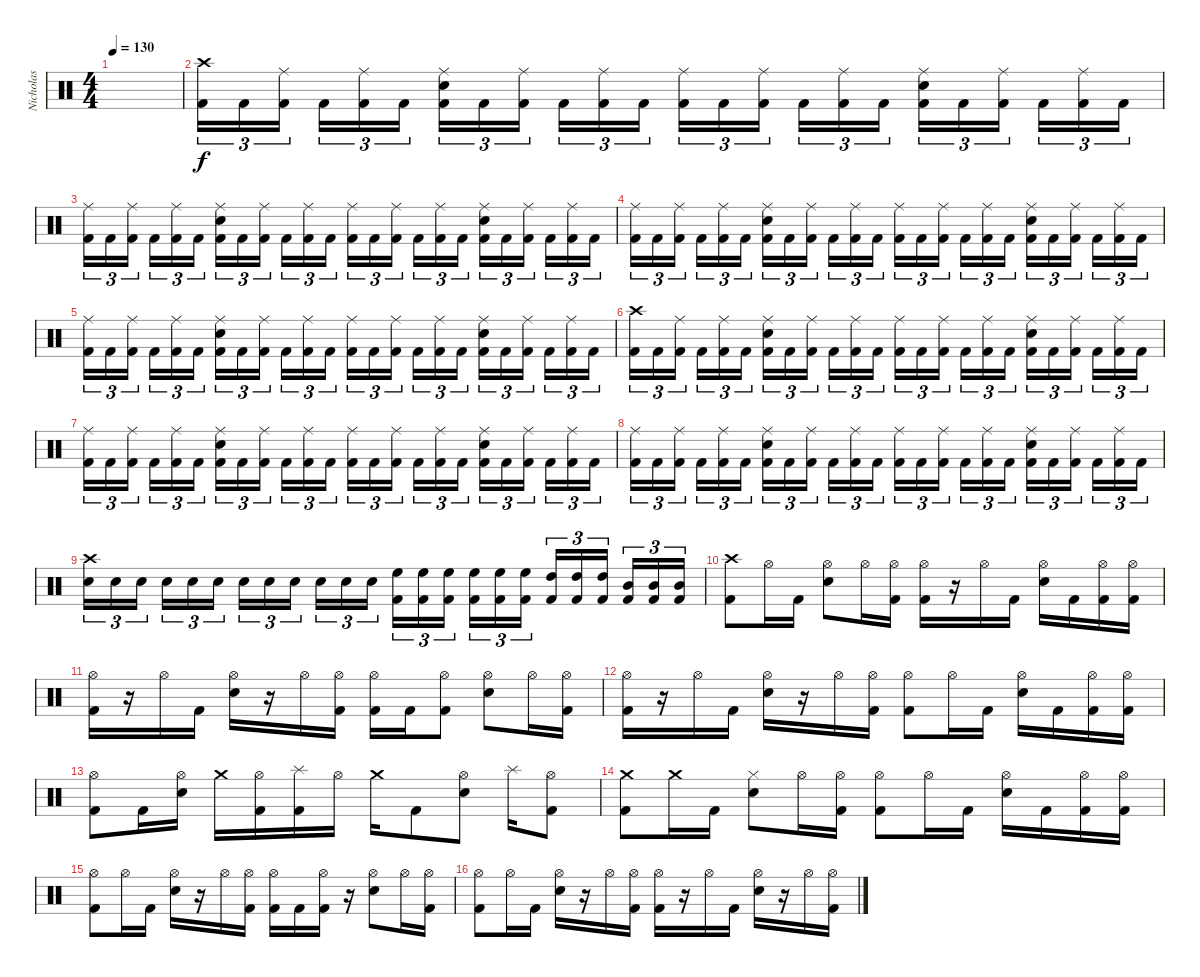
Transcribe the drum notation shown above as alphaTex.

\track ("Nicholas" "Nicholas") {instrument percussion}
\staff {score}
\articulation defaults
\ts (4 4)
\tempo 130
\clef neutral
\ks c
|
("Crash high (hit)" "Kick (hit) 2").16{tu (3 2)} "Kick (hit) 2".16{tu (3 2)} ("Ride (middle)" "Kick (hit) 2").16{tu (3 2) beam splitsecondary} "Kick (hit) 2".16{tu (3 2)} ("Ride (middle)" "Kick (hit) 2").16{tu (3 2)} "Kick (hit) 2".16{tu (3 2)} ("Ride (middle)" "Snare (hit) 2" "Kick (hit) 2").16{tu (3 2)} "Kick (hit) 2".16{tu (3 2)} ("Ride (middle)" "Kick (hit) 2").16{tu (3 2) beam splitsecondary} "Kick (hit) 2".16{tu (3 2)} ("Ride (middle)" "Kick (hit) 2").16{tu (3 2)} "Kick (hit) 2".16{tu (3 2)} ("Ride (middle)" "Kick (hit) 2").16{tu (3 2)} "Kick (hit) 2".16{tu (3 2)} ("Ride (middle)" "Kick (hit) 2").16{tu (3 2) beam splitsecondary} "Kick (hit) 2".16{tu (3 2)} ("Ride (middle)" "Kick (hit) 2").16{tu (3 2)} "Kick (hit) 2".16{tu (3 2)} ("Ride (middle)" "Snare (hit) 2" "Kick (hit) 2").16{tu (3 2)} "Kick (hit) 2".16{tu (3 2)} ("Ride (middle)" "Kick (hit) 2").16{tu (3 2) beam splitsecondary} "Kick (hit) 2".16{tu (3 2)} ("Ride (middle)" "Kick (hit) 2").16{tu (3 2)} "Kick (hit) 2".16{tu (3 2)} |
("Ride (middle)" "Kick (hit) 2").16{tu (3 2)} "Kick (hit) 2".16{tu (3 2)} ("Ride (middle)" "Kick (hit) 2").16{tu (3 2) beam splitsecondary} "Kick (hit) 2".16{tu (3 2)} ("Ride (middle)" "Kick (hit) 2").16{tu (3 2)} "Kick (hit) 2".16{tu (3 2)} ("Ride (middle)" "Snare (hit) 2" "Kick (hit) 2").16{tu (3 2)} "Kick (hit) 2".16{tu (3 2)} ("Ride (middle)" "Kick (hit) 2").16{tu (3 2) beam splitsecondary} "Kick (hit) 2".16{tu (3 2)} ("Ride (middle)" "Kick (hit) 2").16{tu (3 2)} "Kick (hit) 2".16{tu (3 2)} ("Ride (middle)" "Kick (hit) 2").16{tu (3 2)} "Kick (hit) 2".16{tu (3 2)} ("Ride (middle)" "Kick (hit) 2").16{tu (3 2) beam splitsecondary} "Kick (hit) 2".16{tu (3 2)} ("Ride (middle)" "Kick (hit) 2").16{tu (3 2)} "Kick (hit) 2".16{tu (3 2)} ("Ride (middle)" "Snare (hit) 2" "Kick (hit) 2").16{tu (3 2)} "Kick (hit) 2".16{tu (3 2)} ("Ride (middle)" "Kick (hit) 2").16{tu (3 2) beam splitsecondary} "Kick (hit) 2".16{tu (3 2)} ("Ride (middle)" "Kick (hit) 2").16{tu (3 2)} "Kick (hit) 2".16{tu (3 2)} |
("Ride (middle)" "Kick (hit) 2").16{tu (3 2)} "Kick (hit) 2".16{tu (3 2)} ("Ride (middle)" "Kick (hit) 2").16{tu (3 2) beam splitsecondary} "Kick (hit) 2".16{tu (3 2)} ("Ride (middle)" "Kick (hit) 2").16{tu (3 2)} "Kick (hit) 2".16{tu (3 2)} ("Ride (middle)" "Snare (hit) 2" "Kick (hit) 2").16{tu (3 2)} "Kick (hit) 2".16{tu (3 2)} ("Ride (middle)" "Kick (hit) 2").16{tu (3 2) beam splitsecondary} "Kick (hit) 2".16{tu (3 2)} ("Ride (middle)" "Kick (hit) 2").16{tu (3 2)} "Kick (hit) 2".16{tu (3 2)} ("Ride (middle)" "Kick (hit) 2").16{tu (3 2)} "Kick (hit) 2".16{tu (3 2)} ("Ride (middle)" "Kick (hit) 2").16{tu (3 2) beam splitsecondary} "Kick (hit) 2".16{tu (3 2)} ("Ride (middle)" "Kick (hit) 2").16{tu (3 2)} "Kick (hit) 2".16{tu (3 2)} ("Ride (middle)" "Snare (hit) 2" "Kick (hit) 2").16{tu (3 2)} "Kick (hit) 2".16{tu (3 2)} ("Ride (middle)" "Kick (hit) 2").16{tu (3 2) beam splitsecondary} "Kick (hit) 2".16{tu (3 2)} ("Ride (middle)" "Kick (hit) 2").16{tu (3 2)} "Kick (hit) 2".16{tu (3 2)} |
("Ride (middle)" "Kick (hit) 2").16{tu (3 2)} "Kick (hit) 2".16{tu (3 2)} ("Ride (middle)" "Kick (hit) 2").16{tu (3 2) beam splitsecondary} "Kick (hit) 2".16{tu (3 2)} ("Ride (middle)" "Kick (hit) 2").16{tu (3 2)} "Kick (hit) 2".16{tu (3 2)} ("Ride (middle)" "Snare (hit) 2" "Kick (hit) 2").16{tu (3 2)} "Kick (hit) 2".16{tu (3 2)} ("Ride (middle)" "Kick (hit) 2").16{tu (3 2) beam splitsecondary} "Kick (hit) 2".16{tu (3 2)} ("Ride (middle)" "Kick (hit) 2").16{tu (3 2)} "Kick (hit) 2".16{tu (3 2)} ("Ride (middle)" "Kick (hit) 2").16{tu (3 2)} "Kick (hit) 2".16{tu (3 2)} ("Ride (middle)" "Kick (hit) 2").16{tu (3 2) beam splitsecondary} "Kick (hit) 2".16{tu (3 2)} ("Ride (middle)" "Kick (hit) 2").16{tu (3 2)} "Kick (hit) 2".16{tu (3 2)} ("Ride (middle)" "Snare (hit) 2" "Kick (hit) 2").16{tu (3 2)} "Kick (hit) 2".16{tu (3 2)} ("Ride (middle)" "Kick (hit) 2").16{tu (3 2) beam splitsecondary} "Kick (hit) 2".16{tu (3 2)} ("Ride (middle)" "Kick (hit) 2").16{tu (3 2)} "Kick (hit) 2".16{tu (3 2)} |
("Crash high (hit)" "Kick (hit) 2").16{tu (3 2)} "Kick (hit) 2".16{tu (3 2)} ("Ride (middle)" "Kick (hit) 2").16{tu (3 2) beam splitsecondary} "Kick (hit) 2".16{tu (3 2)} ("Ride (middle)" "Kick (hit) 2").16{tu (3 2)} "Kick (hit) 2".16{tu (3 2)} ("Ride (middle)" "Snare (hit) 2" "Kick (hit) 2").16{tu (3 2)} "Kick (hit) 2".16{tu (3 2)} ("Ride (middle)" "Kick (hit) 2").16{tu (3 2) beam splitsecondary} "Kick (hit) 2".16{tu (3 2)} ("Ride (middle)" "Kick (hit) 2").16{tu (3 2)} "Kick (hit) 2".16{tu (3 2)} ("Ride (middle)" "Kick (hit) 2").16{tu (3 2)} "Kick (hit) 2".16{tu (3 2)} ("Ride (middle)" "Kick (hit) 2").16{tu (3 2) beam splitsecondary} "Kick (hit) 2".16{tu (3 2)} ("Ride (middle)" "Kick (hit) 2").16{tu (3 2)} "Kick (hit) 2".16{tu (3 2)} ("Ride (middle)" "Snare (hit) 2" "Kick (hit) 2").16{tu (3 2)} "Kick (hit) 2".16{tu (3 2)} ("Ride (middle)" "Kick (hit) 2").16{tu (3 2) beam splitsecondary} "Kick (hit) 2".16{tu (3 2)} ("Ride (middle)" "Kick (hit) 2").16{tu (3 2)} "Kick (hit) 2".16{tu (3 2)} |
("Ride (middle)" "Kick (hit) 2").16{tu (3 2)} "Kick (hit) 2".16{tu (3 2)} ("Ride (middle)" "Kick (hit) 2").16{tu (3 2) beam splitsecondary} "Kick (hit) 2".16{tu (3 2)} ("Ride (middle)" "Kick (hit) 2").16{tu (3 2)} "Kick (hit) 2".16{tu (3 2)} ("Ride (middle)" "Snare (hit) 2" "Kick (hit) 2").16{tu (3 2)} "Kick (hit) 2".16{tu (3 2)} ("Ride (middle)" "Kick (hit) 2").16{tu (3 2) beam splitsecondary} "Kick (hit) 2".16{tu (3 2)} ("Ride (middle)" "Kick (hit) 2").16{tu (3 2)} "Kick (hit) 2".16{tu (3 2)} ("Ride (middle)" "Kick (hit) 2").16{tu (3 2)} "Kick (hit) 2".16{tu (3 2)} ("Ride (middle)" "Kick (hit) 2").16{tu (3 2) beam splitsecondary} "Kick (hit) 2".16{tu (3 2)} ("Ride (middle)" "Kick (hit) 2").16{tu (3 2)} "Kick (hit) 2".16{tu (3 2)} ("Ride (middle)" "Snare (hit) 2" "Kick (hit) 2").16{tu (3 2)} "Kick (hit) 2".16{tu (3 2)} ("Ride (middle)" "Kick (hit) 2").16{tu (3 2) beam splitsecondary} "Kick (hit) 2".16{tu (3 2)} ("Ride (middle)" "Kick (hit) 2").16{tu (3 2)} "Kick (hit) 2".16{tu (3 2)} |
("Ride (middle)" "Kick (hit) 2").16{tu (3 2)} "Kick (hit) 2".16{tu (3 2)} ("Ride (middle)" "Kick (hit) 2").16{tu (3 2) beam splitsecondary} "Kick (hit) 2".16{tu (3 2)} ("Ride (middle)" "Kick (hit) 2").16{tu (3 2)} "Kick (hit) 2".16{tu (3 2)} ("Ride (middle)" "Snare (hit) 2" "Kick (hit) 2").16{tu (3 2)} "Kick (hit) 2".16{tu (3 2)} ("Ride (middle)" "Kick (hit) 2").16{tu (3 2) beam splitsecondary} "Kick (hit) 2".16{tu (3 2)} ("Ride (middle)" "Kick (hit) 2").16{tu (3 2)} "Kick (hit) 2".16{tu (3 2)} ("Ride (middle)" "Kick (hit) 2").16{tu (3 2)} "Kick (hit) 2".16{tu (3 2)} ("Ride (middle)" "Kick (hit) 2").16{tu (3 2) beam splitsecondary} "Kick (hit) 2".16{tu (3 2)} ("Ride (middle)" "Kick (hit) 2").16{tu (3 2)} "Kick (hit) 2".16{tu (3 2)} ("Ride (middle)" "Snare (hit) 2" "Kick (hit) 2").16{tu (3 2)} "Kick (hit) 2".16{tu (3 2)} ("Ride (middle)" "Kick (hit) 2").16{tu (3 2) beam splitsecondary} "Kick (hit) 2".16{tu (3 2)} ("Ride (middle)" "Kick (hit) 2").16{tu (3 2)} "Kick (hit) 2".16{tu (3 2)} |
("Crash high (hit)" "Snare (hit) 2").16{tu (3 2)} "Snare (hit) 2".16{tu (3 2)} "Snare (hit) 2".16{tu (3 2) beam splitsecondary} "Snare (hit) 2".16{tu (3 2)} "Snare (hit) 2".16{tu (3 2)} "Snare (hit) 2".16{tu (3 2)} "Snare (hit) 2".16{tu (3 2)} "Snare (hit) 2".16{tu (3 2)} "Snare (hit) 2".16{tu (3 2) beam splitsecondary} "Snare (hit) 2".16{tu (3 2)} "Snare (hit) 2".16{tu (3 2)} "Snare (hit) 2".16{tu (3 2)} ("High Floor Tom (hit)" "Kick (hit) 2").16{tu (3 2)} ("High Floor Tom (hit)" "Kick (hit) 2").16{tu (3 2)} ("High Floor Tom (hit)" "Kick (hit) 2").16{tu (3 2) beam splitsecondary} ("High Floor Tom (hit)" "Kick (hit) 2").16{tu (3 2)} ("High Floor Tom (hit)" "Kick (hit) 2").16{tu (3 2)} ("High Floor Tom (hit)" "Kick (hit) 2").16{tu (3 2)} ("High Tom (hit)" "Kick (hit) 2").16{tu (3 2)} ("High Tom (hit)" "Kick (hit) 2").16{tu (3 2)} ("High Tom (hit)" "Kick (hit) 2").16{tu (3 2) beam splitsecondary} ("Mid Tom (hit)" "Kick (hit) 2").16{tu (3 2)} ("Mid Tom (hit)" "Kick (hit) 2").16{tu (3 2)} ("Mid Tom (hit)" "Kick (hit) 2").16{tu (3 2)} |
("Crash high (hit)" "Kick (hit) 2").8 "Hi-Hat (open)".16 "Kick (hit) 2".16 ("Hi-Hat (open)" "Snare (hit) 2").8 "Hi-Hat (open)".16 ("Hi-Hat (open)" "Kick (hit) 2").16 ("Hi-Hat (open)" "Kick (hit) 2").16 r.16 "Hi-Hat (open)".16 "Kick (hit) 2".16 ("Hi-Hat (open)" "Snare (hit) 2").16 "Kick (hit) 2".16 ("Hi-Hat (open)" "Kick (hit) 2").16 ("Hi-Hat (open)" "Kick (hit) 2").16 |
("Hi-Hat (open)" "Kick (hit) 2").16 r.16 "Hi-Hat (open)".16 "Kick (hit) 2".16 ("Hi-Hat (open)" "Snare (hit) 2").16 r.16 "Hi-Hat (open)".16 ("Hi-Hat (open)" "Kick (hit) 2").16 ("Hi-Hat (open)" "Kick (hit) 2").16 "Kick (hit) 2".16 ("Hi-Hat (open)" "Kick (hit) 2").8 ("Hi-Hat (open)" "Snare (hit) 2").8 "Hi-Hat (open)".16 ("Hi-Hat (open)" "Kick (hit) 2").16 |
("Hi-Hat (open)" "Kick (hit) 2").16 r.16 "Hi-Hat (open)".16 "Kick (hit) 2".16 ("Hi-Hat (open)" "Snare (hit) 2").16 r.16 "Hi-Hat (open)".16 ("Hi-Hat (open)" "Kick (hit) 2").16 ("Hi-Hat (open)" "Kick (hit) 2").8 "Hi-Hat (open)".16 "Kick (hit) 2".16 ("Hi-Hat (open)" "Snare (hit) 2").16 "Kick (hit) 2".16 ("Hi-Hat (open)" "Kick (hit) 2").16 ("Hi-Hat (open)" "Kick (hit) 2").16 |
("Hi-Hat (open)" "Kick (hit) 2").8 "Kick (hit) 2".16 ("Hi-Hat (open)" "Snare (hit) 2").16 "Crash medium (hit)".16 ("Hi-Hat (open)" "Kick (hit) 2").16 ("Splash (hit)" "Kick (hit) 2").16 "Hi-Hat (open)".16 "Crash medium (hit)".16 "Kick (hit) 2".8 ("Hi-Hat (open)" "Snare (hit) 2").8 "Splash (hit)".16 ("Hi-Hat (open)" "Kick (hit) 2").8 |
("Crash medium (hit)" "Kick (hit) 2").8 "Crash medium (hit)".16 "Kick (hit) 2".16 ("Hi-Hat (closed)" "Snare (hit) 2").8 "Hi-Hat (open)".16 ("Hi-Hat (open)" "Kick (hit) 2").16 ("Hi-Hat (open)" "Kick (hit) 2").8 "Hi-Hat (open)".16 "Kick (hit) 2".16 ("Hi-Hat (open)" "Snare (hit) 2").16 "Kick (hit) 2".16 ("Hi-Hat (open)" "Kick (hit) 2").16 ("Hi-Hat (open)" "Kick (hit) 2").16 |
("Hi-Hat (open)" "Kick (hit) 2").8 "Hi-Hat (open)".16 "Kick (hit) 2".16 ("Hi-Hat (open)" "Snare (hit) 2").16 r.16 "Hi-Hat (open)".16 ("Hi-Hat (open)" "Kick (hit) 2").16 ("Hi-Hat (open)" "Kick (hit) 2").16 "Kick (hit) 2".16 ("Hi-Hat (open)" "Kick (hit) 2").16 r.16 ("Hi-Hat (open)" "Snare (hit) 2").8 "Hi-Hat (open)".16 ("Hi-Hat (open)" "Kick (hit) 2").16 |
("Hi-Hat (open)" "Kick (hit) 2").8 "Hi-Hat (open)".16 "Kick (hit) 2".16 ("Hi-Hat (open)" "Snare (hit) 2").16 r.16 "Hi-Hat (open)".16 ("Hi-Hat (open)" "Kick (hit) 2").16 ("Hi-Hat (open)" "Kick (hit) 2").16 r.16 "Hi-Hat (open)".16 "Kick (hit) 2".16 ("Hi-Hat (open)" "Snare (hit) 2").16 r.16 "Hi-Hat (open)".16 ("Hi-Hat (open)" "Kick (hit) 2").16
